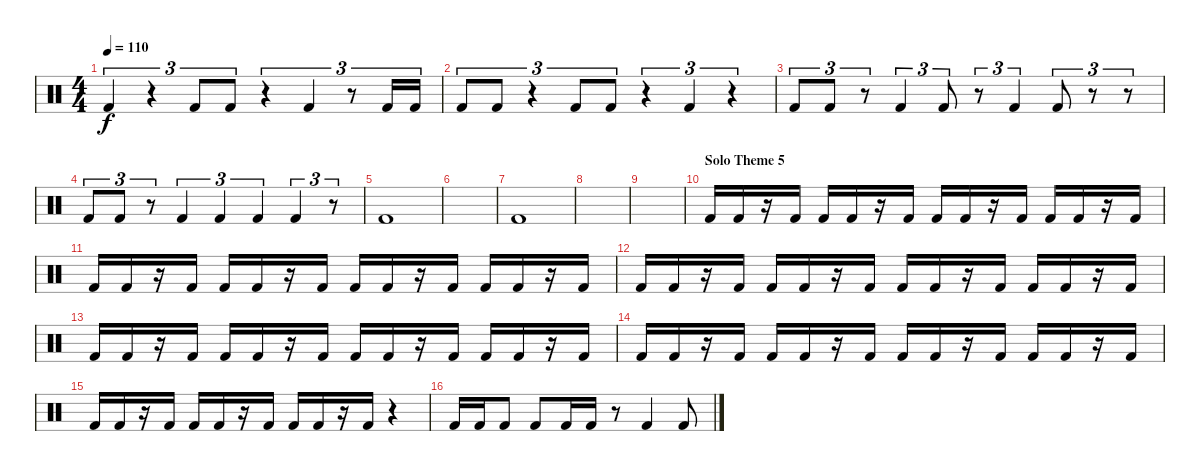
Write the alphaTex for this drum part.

\track "" {instrument percussion}
\staff {score}
\articulation defaults
\ts (4 4)
\tempo 110
\clef neutral
\ks c "Kick (hit) 2".4{tu (3 2) dy f}
r.4{tu (3 2)} "Kick (hit) 2".8{tu (3 2)} "Kick (hit) 2".8{tu (3 2)} r.4{tu (3 2)} "Kick (hit) 2".4{tu (3 2)} r.8{tu (3 2)} "Kick (hit) 2".16{tu (3 2)} "Kick (hit) 2".16{tu (3 2)} |
"Kick (hit) 2".8{tu (3 2)} "Kick (hit) 2".8{tu (3 2)} r.4{tu (3 2)} "Kick (hit) 2".8{tu (3 2)} "Kick (hit) 2".8{tu (3 2)} r.4{tu (3 2)} "Kick (hit) 2".4{tu (3 2)} r.4{tu (3 2)} |
"Kick (hit) 2".8{tu (3 2)} "Kick (hit) 2".8{tu (3 2)} r.8{tu (3 2)} "Kick (hit) 2".4{tu (3 2)} "Kick (hit) 2".8{tu (3 2)} r.8{tu (3 2)} "Kick (hit) 2".4{tu (3 2)} "Kick (hit) 2".8{tu (3 2)} r.8{tu (3 2)} r.8{tu (3 2)} |
"Kick (hit) 2".8{tu (3 2)} "Kick (hit) 2".8{tu (3 2)} r.8{tu (3 2)} "Kick (hit) 2".4{tu (3 2)} "Kick (hit) 2".4{tu (3 2)} "Kick (hit) 2".4{tu (3 2)} "Kick (hit) 2".4{tu (3 2)} r.8{tu (3 2)} |
"Kick (hit) 2".1 |
|
"Kick (hit) 2".1 |
|
|
\section ("" "Solo Theme 5")
"Kick (hit) 2".16 "Kick (hit) 2".16 r.16 "Kick (hit) 2".16 "Kick (hit) 2".16 "Kick (hit) 2".16 r.16 "Kick (hit) 2".16 "Kick (hit) 2".16 "Kick (hit) 2".16 r.16 "Kick (hit) 2".16 "Kick (hit) 2".16 "Kick (hit) 2".16 r.16 "Kick (hit) 2".16 |
"Kick (hit) 2".16 "Kick (hit) 2".16 r.16 "Kick (hit) 2".16 "Kick (hit) 2".16 "Kick (hit) 2".16 r.16 "Kick (hit) 2".16 "Kick (hit) 2".16 "Kick (hit) 2".16 r.16 "Kick (hit) 2".16 "Kick (hit) 2".16 "Kick (hit) 2".16 r.16 "Kick (hit) 2".16 |
"Kick (hit) 2".16 "Kick (hit) 2".16 r.16 "Kick (hit) 2".16 "Kick (hit) 2".16 "Kick (hit) 2".16 r.16 "Kick (hit) 2".16 "Kick (hit) 2".16 "Kick (hit) 2".16 r.16 "Kick (hit) 2".16 "Kick (hit) 2".16 "Kick (hit) 2".16 r.16 "Kick (hit) 2".16 |
"Kick (hit) 2".16 "Kick (hit) 2".16 r.16 "Kick (hit) 2".16 "Kick (hit) 2".16 "Kick (hit) 2".16 r.16 "Kick (hit) 2".16 "Kick (hit) 2".16 "Kick (hit) 2".16 r.16 "Kick (hit) 2".16 "Kick (hit) 2".16 "Kick (hit) 2".16 r.16 "Kick (hit) 2".16 |
"Kick (hit) 2".16 "Kick (hit) 2".16 r.16 "Kick (hit) 2".16 "Kick (hit) 2".16 "Kick (hit) 2".16 r.16 "Kick (hit) 2".16 "Kick (hit) 2".16 "Kick (hit) 2".16 r.16 "Kick (hit) 2".16 "Kick (hit) 2".16 "Kick (hit) 2".16 r.16 "Kick (hit) 2".16 |
"Kick (hit) 2".16 "Kick (hit) 2".16 r.16 "Kick (hit) 2".16 "Kick (hit) 2".16 "Kick (hit) 2".16 r.16 "Kick (hit) 2".16 "Kick (hit) 2".16 "Kick (hit) 2".16 r.16 "Kick (hit) 2".16 r.4 |
"Kick (hit) 2".16 "Kick (hit) 2".16 "Kick (hit) 2".8 "Kick (hit) 2".8 "Kick (hit) 2".16 "Kick (hit) 2".16 r.8 "Kick (hit) 2".4 "Kick (hit) 2".8
